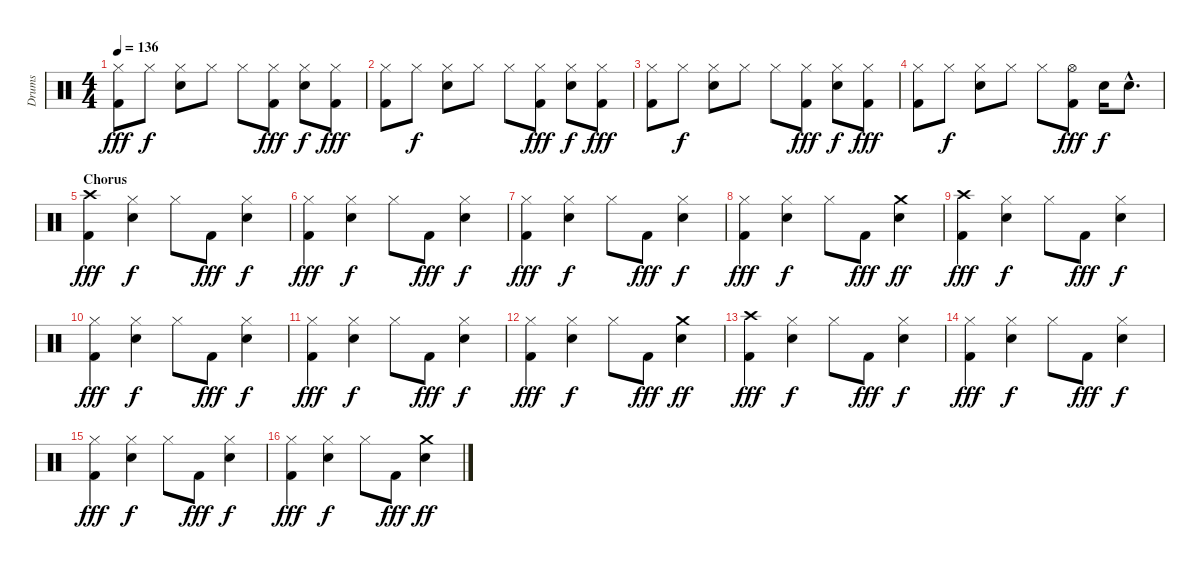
\track ("Drums" "Drums") {instrument percussion}
\staff {score}
\articulation defaults
\ts (4 4)
\tempo 136
\clef neutral
\ks c
("Hi-Hat (closed)" "Kick (hit) 2").8{txt " " dy fff} "Hi-Hat (closed)".8{dy f} ("Hi-Hat (closed)" "Snare (hit) 2").8 "Hi-Hat (closed)".8 "Hi-Hat (closed)".8 ("Hi-Hat (closed)" "Kick (hit) 2").8{dy fff} ("Hi-Hat (closed)" "Snare (hit) 2").8{dy f} ("Hi-Hat (closed)" "Kick (hit) 2").8{dy fff} |
("Hi-Hat (closed)" "Kick (hit) 2").8{txt " "} "Hi-Hat (closed)".8{dy f} ("Hi-Hat (closed)" "Snare (hit) 2").8 "Hi-Hat (closed)".8 "Hi-Hat (closed)".8 ("Hi-Hat (closed)" "Kick (hit) 2").8{dy fff} ("Hi-Hat (closed)" "Snare (hit) 2").8{dy f} ("Hi-Hat (closed)" "Kick (hit) 2").8{dy fff} |
("Hi-Hat (closed)" "Kick (hit) 2").8{txt " "} "Hi-Hat (closed)".8{dy f} ("Hi-Hat (closed)" "Snare (hit) 2").8 "Hi-Hat (closed)".8 "Hi-Hat (closed)".8 ("Hi-Hat (closed)" "Kick (hit) 2").8{dy fff} ("Hi-Hat (closed)" "Snare (hit) 2").8{dy f} ("Hi-Hat (closed)" "Kick (hit) 2").8{dy fff} |
("Hi-Hat (closed)" "Kick (hit) 2").8{txt " "} "Hi-Hat (closed)".8{dy f} ("Hi-Hat (closed)" "Snare (hit) 2").8 "Hi-Hat (closed)".8 "Hi-Hat (closed)".8 ("Hi-Hat (open)" "Kick (hit) 2").8{dy fff} "Snare (hit) 2".16{dy f} "Snare (hit) 2"{hac}.8{d} |
\section ("" "Chorus")
("Crash high (hit)" "Kick (hit) 2").4{txt " " dy fff} ("Hi-Hat (closed)" "Snare (hit) 2").4{dy f} "Hi-Hat (closed)".8 "Kick (hit) 2".8{dy fff} ("Hi-Hat (closed)" "Snare (hit) 2").4{dy f} |
("Hi-Hat (closed)" "Kick (hit) 2").4{txt " " dy fff} ("Hi-Hat (closed)" "Snare (hit) 2").4{dy f} "Hi-Hat (closed)".8 "Kick (hit) 2".8{dy fff} ("Hi-Hat (closed)" "Snare (hit) 2").4{dy f} |
("Hi-Hat (closed)" "Kick (hit) 2").4{txt " " dy fff} ("Hi-Hat (closed)" "Snare (hit) 2").4{dy f} "Hi-Hat (closed)".8 "Kick (hit) 2".8{dy fff} ("Hi-Hat (closed)" "Snare (hit) 2").4{dy f} |
("Hi-Hat (closed)" "Kick (hit) 2").4{txt " " dy fff} ("Hi-Hat (closed)" "Snare (hit) 2").4{dy f} "Hi-Hat (closed)".8 "Kick (hit) 2".8{dy fff} ("Crash medium (hit)" "Snare (hit) 2").4{dy ff} |
("Crash high (hit)" "Kick (hit) 2").4{txt " " dy fff} ("Hi-Hat (closed)" "Snare (hit) 2").4{dy f} "Hi-Hat (closed)".8 "Kick (hit) 2".8{dy fff} ("Hi-Hat (closed)" "Snare (hit) 2").4{dy f} |
("Hi-Hat (closed)" "Kick (hit) 2").4{txt " " dy fff} ("Hi-Hat (closed)" "Snare (hit) 2").4{dy f} "Hi-Hat (closed)".8 "Kick (hit) 2".8{dy fff} ("Hi-Hat (closed)" "Snare (hit) 2").4{dy f} |
("Hi-Hat (closed)" "Kick (hit) 2").4{txt " " dy fff} ("Hi-Hat (closed)" "Snare (hit) 2").4{dy f} "Hi-Hat (closed)".8 "Kick (hit) 2".8{dy fff} ("Hi-Hat (closed)" "Snare (hit) 2").4{dy f} |
("Hi-Hat (closed)" "Kick (hit) 2").4{txt " " dy fff} ("Hi-Hat (closed)" "Snare (hit) 2").4{dy f} "Hi-Hat (closed)".8 "Kick (hit) 2".8{dy fff} ("Crash medium (hit)" "Snare (hit) 2").4{dy ff} |
("Crash high (hit)" "Kick (hit) 2").4{txt " " dy fff} ("Hi-Hat (closed)" "Snare (hit) 2").4{dy f} "Hi-Hat (closed)".8 "Kick (hit) 2".8{dy fff} ("Hi-Hat (closed)" "Snare (hit) 2").4{dy f} |
("Hi-Hat (closed)" "Kick (hit) 2").4{txt " " dy fff} ("Hi-Hat (closed)" "Snare (hit) 2").4{dy f} "Hi-Hat (closed)".8 "Kick (hit) 2".8{dy fff} ("Hi-Hat (closed)" "Snare (hit) 2").4{dy f} |
("Hi-Hat (closed)" "Kick (hit) 2").4{txt " " dy fff} ("Hi-Hat (closed)" "Snare (hit) 2").4{dy f} "Hi-Hat (closed)".8 "Kick (hit) 2".8{dy fff} ("Hi-Hat (closed)" "Snare (hit) 2").4{dy f} |
("Hi-Hat (closed)" "Kick (hit) 2").4{txt " " dy fff} ("Hi-Hat (closed)" "Snare (hit) 2").4{dy f} "Hi-Hat (closed)".8 "Kick (hit) 2".8{dy fff} ("Crash medium (hit)" "Snare (hit) 2").4{dy ff}
